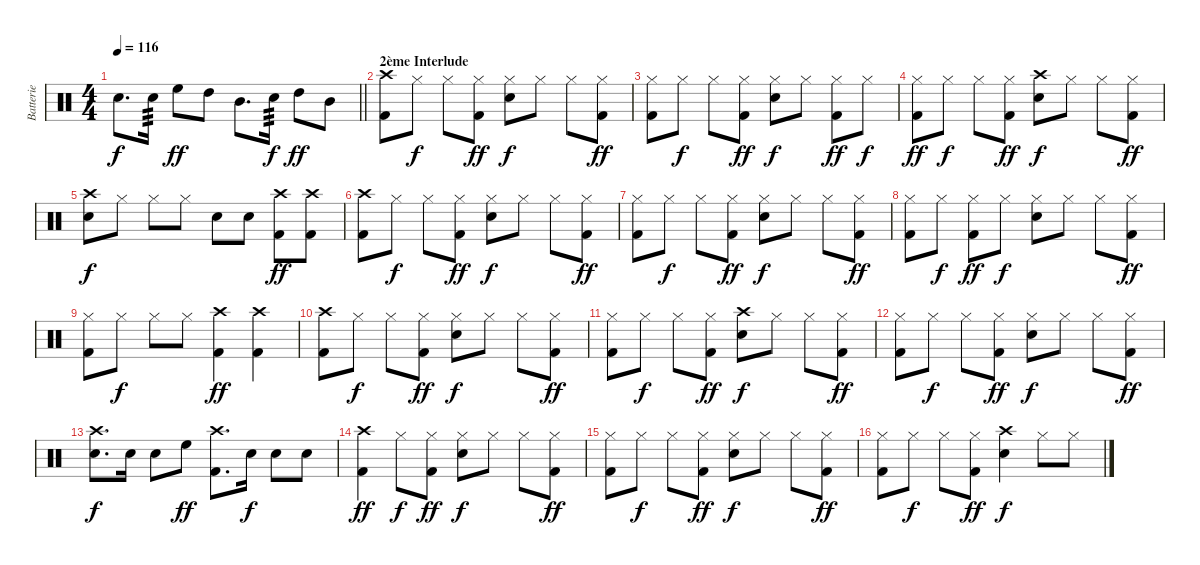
\track ("Batterie" "Batterie") {instrument percussion}
\staff {score}
\articulation defaults
\ts (4 4)
\tempo 116
\clef neutral
\barLineRight lightlight
\ks c "Snare (hit) 2".8{d dy f} "Snare (hit) 2".16{tp 3} "High Floor Tom (hit)".8{dy ff} "High Tom (hit)".8 "Mid Tom (hit)".8{d} "Snare (hit) 2".16{tp 3 dy f} "High Tom (hit)".8{dy ff} "Mid Tom (hit)".8
|
\section ("" "2ème Interlude")
("Crash high (hit)" "Kick (hit) 2").8 "Hi-Hat (closed)".8{dy f} "Hi-Hat (closed)".8 ("Hi-Hat (closed)" "Kick (hit) 2").8{dy ff} ("Hi-Hat (closed)" "Snare (hit) 2").8{dy f} "Hi-Hat (closed)".8 "Hi-Hat (closed)".8 ("Hi-Hat (closed)" "Kick (hit) 2").8{dy ff} |
("Hi-Hat (closed)" "Kick (hit) 2").8 "Hi-Hat (closed)".8{dy f} "Hi-Hat (closed)".8 ("Hi-Hat (closed)" "Kick (hit) 2").8{dy ff} ("Hi-Hat (closed)" "Snare (hit) 2").8{dy f} "Hi-Hat (closed)".8 ("Hi-Hat (closed)" "Kick (hit) 2").8{dy ff} "Hi-Hat (closed)".8{dy f} |
("Hi-Hat (closed)" "Kick (hit) 2").8{dy ff} "Hi-Hat (closed)".8{dy f} "Hi-Hat (closed)".8 ("Hi-Hat (closed)" "Kick (hit) 2").8{dy ff} ("Crash high (hit)" "Snare (hit) 2").8{dy f} "Hi-Hat (closed)".8 "Hi-Hat (closed)".8 ("Hi-Hat (closed)" "Kick (hit) 2").8{dy ff} |
("Crash high (hit)" "Snare (hit) 2").8{dy f} "Hi-Hat (closed)".8 "Hi-Hat (closed)".8 "Hi-Hat (closed)".8 "Snare (hit) 2".8 "Snare (hit) 2".8 ("Crash high (hit)" "Kick (hit) 2").8{dy ff} ("Crash high (hit)" "Kick (hit) 2").8 |
("Crash high (hit)" "Kick (hit) 2").8 "Hi-Hat (closed)".8{dy f} "Hi-Hat (closed)".8 ("Hi-Hat (closed)" "Kick (hit) 2").8{dy ff} ("Hi-Hat (closed)" "Snare (hit) 2").8{dy f} "Hi-Hat (closed)".8 "Hi-Hat (closed)".8 ("Hi-Hat (closed)" "Kick (hit) 2").8{dy ff} |
("Hi-Hat (closed)" "Kick (hit) 2").8 "Hi-Hat (closed)".8{dy f} "Hi-Hat (closed)".8 ("Hi-Hat (closed)" "Kick (hit) 2").8{dy ff} ("Hi-Hat (closed)" "Snare (hit) 2").8{dy f} "Hi-Hat (closed)".8 "Hi-Hat (closed)".8 ("Hi-Hat (closed)" "Kick (hit) 2").8{dy ff} |
("Hi-Hat (closed)" "Kick (hit) 2").8 "Hi-Hat (closed)".8{dy f} ("Hi-Hat (closed)" "Kick (hit) 2").8{dy ff} "Hi-Hat (closed)".8{dy f} ("Hi-Hat (closed)" "Snare (hit) 2").8 "Hi-Hat (closed)".8 "Hi-Hat (closed)".8 ("Hi-Hat (closed)" "Kick (hit) 2").8{dy ff} |
("Hi-Hat (closed)" "Kick (hit) 2").8 "Hi-Hat (closed)".8{dy f} "Hi-Hat (closed)".8 "Hi-Hat (closed)".8 ("Crash high (hit)" "Kick (hit) 2").4{dy ff} ("Crash high (hit)" "Kick (hit) 2").4 |
("Crash high (hit)" "Kick (hit) 2").8 "Hi-Hat (closed)".8{dy f} "Hi-Hat (closed)".8 ("Hi-Hat (closed)" "Kick (hit) 2").8{dy ff} ("Hi-Hat (closed)" "Snare (hit) 2").8{dy f} "Hi-Hat (closed)".8 "Hi-Hat (closed)".8 ("Hi-Hat (closed)" "Kick (hit) 2").8{dy ff} |
("Hi-Hat (closed)" "Kick (hit) 2").8 "Hi-Hat (closed)".8{dy f} "Hi-Hat (closed)".8 ("Hi-Hat (closed)" "Kick (hit) 2").8{dy ff} ("Crash high (hit)" "Snare (hit) 2").8{dy f} "Hi-Hat (closed)".8 "Hi-Hat (closed)".8 ("Hi-Hat (closed)" "Kick (hit) 2").8{dy ff} |
("Hi-Hat (closed)" "Kick (hit) 2").8 "Hi-Hat (closed)".8{dy f} "Hi-Hat (closed)".8 ("Hi-Hat (closed)" "Kick (hit) 2").8{dy ff} ("Hi-Hat (closed)" "Snare (hit) 2").8{dy f} "Hi-Hat (closed)".8 "Hi-Hat (closed)".8 ("Hi-Hat (closed)" "Kick (hit) 2").8{dy ff} |
("Crash high (hit)" "Snare (hit) 2").8{d dy f} "Snare (hit) 2".16 "Snare (hit) 2".8 "High Floor Tom (hit)".8{dy ff} ("Crash high (hit)" "Kick (hit) 2").8{d} "Snare (hit) 2".16{dy f} "Snare (hit) 2".8 "Snare (hit) 2".8 |
("Crash high (hit)" "Kick (hit) 2").4{dy ff} "Hi-Hat (closed)".8{dy f} ("Hi-Hat (closed)" "Kick (hit) 2").8{dy ff} ("Hi-Hat (closed)" "Snare (hit) 2").8{dy f} "Hi-Hat (closed)".8 "Hi-Hat (closed)".8 ("Hi-Hat (closed)" "Kick (hit) 2").8{dy ff} |
("Hi-Hat (closed)" "Kick (hit) 2").8 "Hi-Hat (closed)".8{dy f} "Hi-Hat (closed)".8 ("Hi-Hat (closed)" "Kick (hit) 2").8{dy ff} ("Hi-Hat (closed)" "Snare (hit) 2").8{dy f} "Hi-Hat (closed)".8 "Hi-Hat (closed)".8 ("Hi-Hat (closed)" "Kick (hit) 2").8{dy ff} |
("Hi-Hat (closed)" "Kick (hit) 2").8 "Hi-Hat (closed)".8{dy f} "Hi-Hat (closed)".8 ("Hi-Hat (closed)" "Kick (hit) 2").8{dy ff} ("Crash high (hit)" "Snare (hit) 2").4{dy f} "Hi-Hat (closed)".8 "Hi-Hat (closed)".8
